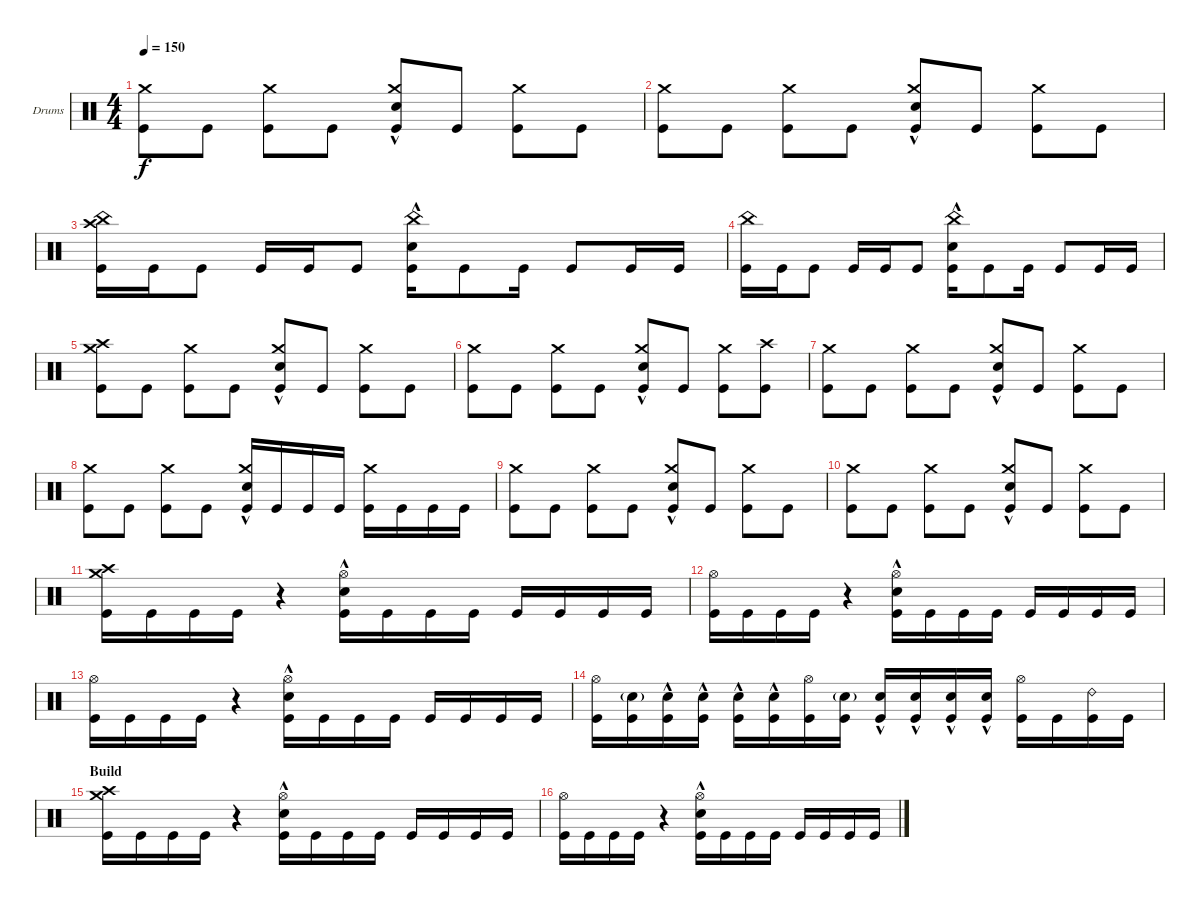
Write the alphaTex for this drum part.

\bracketExtendMode groupsimilarinstruments
\firstSystemTrackNameOrientation horizontal
\otherSystemsTrackNameOrientation horizontal
\track ("Drumkit" "Drums") {instrument percussion}
\staff {score}
\articulation defaults
\ts (4 4)
\tempo 150
\clef neutral
\ks aminor
("Kick (hit)" "Crash medium (hit)").8{dy f} "Kick (hit)".8 ("Kick (hit)" "Crash medium (hit)").8 "Kick (hit)".8 ("Kick (hit)" "Crash medium (hit)" "Snare (hit) 2"{hac}).8 "Kick (hit)".8 ("Kick (hit)" "Crash medium (hit)").8 "Kick (hit)".8 |
("Kick (hit)" "Crash medium (hit)").8 "Kick (hit)".8 ("Kick (hit)" "Crash medium (hit)").8 "Kick (hit)".8 ("Kick (hit)" "Crash medium (hit)" "Snare (hit) 2"{hac}).8 "Kick (hit)".8 ("Kick (hit)" "Crash medium (hit)").8 "Kick (hit)".8 |
("Kick (hit)" "China (hit)" "Crash high (hit)").16 "Kick (hit)".16 "Kick (hit)".8 "Kick (hit)".16 "Kick (hit)".16 "Kick (hit)".8 ("Kick (hit)" "China (hit)" "Snare (hit) 2"{hac}).16 "Kick (hit)".8 "Kick (hit)".16 "Kick (hit)".8 "Kick (hit)".16 "Kick (hit)".16 |
("Kick (hit)" "China (hit)").16 "Kick (hit)".16 "Kick (hit)".8 "Kick (hit)".16 "Kick (hit)".16 "Kick (hit)".8 ("Kick (hit)" "China (hit)" "Snare (hit) 2"{hac}).16 "Kick (hit)".8 "Kick (hit)".16 "Kick (hit)".8 "Kick (hit)".16 "Kick (hit)".16 |
("Kick (hit)" "Crash medium (hit)" "Crash high (hit)").8 "Kick (hit)".8 ("Kick (hit)" "Crash medium (hit)").8 "Kick (hit)".8 ("Kick (hit)" "Crash medium (hit)" "Snare (hit) 2"{hac}).8 "Kick (hit)".8 ("Kick (hit)" "Crash medium (hit)").8 "Kick (hit)".8 |
("Kick (hit)" "Crash medium (hit)").8 "Kick (hit)".8 ("Kick (hit)" "Crash medium (hit)").8 "Kick (hit)".8 ("Kick (hit)" "Crash medium (hit)" "Snare (hit) 2"{hac}).8 "Kick (hit)".8 ("Kick (hit)" "Crash medium (hit)").8 ("Kick (hit)" "Crash high (hit)").8 |
("Kick (hit)" "Crash medium (hit)").8 "Kick (hit)".8 ("Kick (hit)" "Crash medium (hit)").8 "Kick (hit)".8 ("Kick (hit)" "Crash medium (hit)" "Snare (hit) 2"{hac}).8 "Kick (hit)".8 ("Kick (hit)" "Crash medium (hit)").8 "Kick (hit)".8 |
("Kick (hit)" "Crash medium (hit)").8 "Kick (hit)".8 ("Kick (hit)" "Crash medium (hit)").8 "Kick (hit)".8 ("Kick (hit)" "Crash medium (hit)" "Snare (hit) 2"{hac}).16 "Kick (hit)".16 "Kick (hit)".16 "Kick (hit)".16 ("Kick (hit)" "Crash medium (hit)").16 "Kick (hit)".16 "Kick (hit)".16 "Kick (hit)".16 |
("Kick (hit)" "Crash medium (hit)").8 "Kick (hit)".8 ("Kick (hit)" "Crash medium (hit)").8 "Kick (hit)".8 ("Kick (hit)" "Crash medium (hit)" "Snare (hit) 2"{hac}).8 "Kick (hit)".8 ("Kick (hit)" "Crash medium (hit)").8 "Kick (hit)".8 |
("Kick (hit)" "Crash medium (hit)").8 "Kick (hit)".8 ("Kick (hit)" "Crash medium (hit)").8 "Kick (hit)".8 ("Kick (hit)" "Crash medium (hit)" "Snare (hit) 2"{hac}).8 "Kick (hit)".8 ("Kick (hit)" "Crash medium (hit)").8 "Kick (hit)".8 |
("Kick (hit)" "Crash medium (hit)" "Crash high (hit)").16 "Kick (hit)".16 "Kick (hit)".16 "Kick (hit)".16 r.4 ("Kick (hit)" "Snare (hit) 2"{hac} "Hi-Hat (open)").16 "Kick (hit)".16 "Kick (hit)".16 "Kick (hit)".16 "Kick (hit)".16 "Kick (hit)".16 "Kick (hit)".16 "Kick (hit)".16 |
("Kick (hit)" "Hi-Hat (open)").16 "Kick (hit)".16 "Kick (hit)".16 "Kick (hit)".16 r.4 ("Kick (hit)" "Snare (hit) 2"{hac} "Hi-Hat (open)").16 "Kick (hit)".16 "Kick (hit)".16 "Kick (hit)".16 "Kick (hit)".16 "Kick (hit)".16 "Kick (hit)".16 "Kick (hit)".16 |
("Kick (hit)" "Hi-Hat (open)").16 "Kick (hit)".16 "Kick (hit)".16 "Kick (hit)".16 r.4 ("Kick (hit)" "Snare (hit) 2"{hac} "Hi-Hat (open)").16 "Kick (hit)".16 "Kick (hit)".16 "Kick (hit)".16 "Kick (hit)".16 "Kick (hit)".16 "Kick (hit)".16 "Kick (hit)".16 |
("Kick (hit)" "Hi-Hat (open)").16 ("Kick (hit)" "Snare (hit) 2"{g}).16 ("Kick (hit)" "Snare (hit) 2"{hac}).16 ("Kick (hit)" "Snare (hit) 2"{hac}).16 ("Kick (hit)" "Snare (hit) 2"{hac}).16 ("Kick (hit)" "Snare (hit) 2"{hac}).16 ("Kick (hit)" "Hi-Hat (open)").16 ("Kick (hit)" "Snare (hit) 2"{g}).16 ("Kick (hit)" "Snare (hit) 2"{hac}).16 ("Kick (hit)" "Snare (hit) 2"{hac}).16 ("Kick (hit)" "Snare (hit) 2"{hac}).16 ("Kick (hit)" "Snare (hit) 2"{hac}).16 ("Kick (hit)" "Hi-Hat (open)").16 "Kick (hit)".16 ("Kick (hit)" "Ride (bell) 2").16 "Kick (hit)".16 |
\section ("" "Build")
("Kick (hit)" "Crash medium (hit)" "Crash high (hit)").16 "Kick (hit)".16 "Kick (hit)".16 "Kick (hit)".16 r.4 ("Kick (hit)" "Snare (hit) 2"{hac} "Hi-Hat (open)").16 "Kick (hit)".16 "Kick (hit)".16 "Kick (hit)".16 "Kick (hit)".16 "Kick (hit)".16 "Kick (hit)".16 "Kick (hit)".16 |
("Kick (hit)" "Hi-Hat (open)").16 "Kick (hit)".16 "Kick (hit)".16 "Kick (hit)".16 r.4 ("Kick (hit)" "Snare (hit) 2"{hac} "Hi-Hat (open)").16 "Kick (hit)".16 "Kick (hit)".16 "Kick (hit)".16 "Kick (hit)".16 "Kick (hit)".16 "Kick (hit)".16 "Kick (hit)".16
